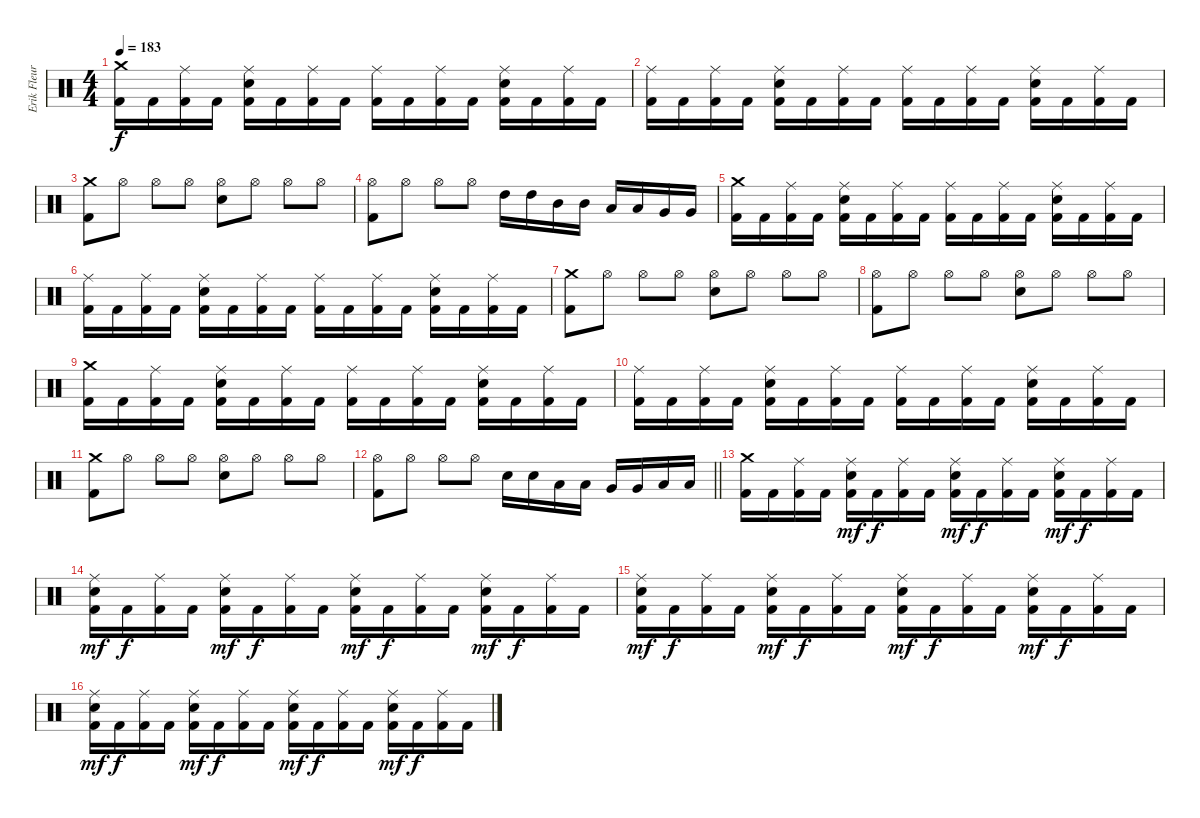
\track ("Erik Fleuren" "Erik Fleur") {instrument percussion}
\staff {score}
\articulation defaults
\ts (4 4)
\tempo 183
\clef neutral
\ks c
("Crash medium (hit)" "Kick (hit) 2").16{dy f} "Kick (hit) 2".16 ("Ride (middle)" "Kick (hit) 2").16 "Kick (hit) 2".16 ("Ride (middle)" "Electric Snare (hit)" "Kick (hit) 2").16 "Kick (hit) 2".16 ("Ride (middle)" "Kick (hit) 2").16 "Kick (hit) 2".16 ("Ride (middle)" "Kick (hit) 2").16 "Kick (hit) 2".16 ("Ride (middle)" "Kick (hit) 2").16 "Kick (hit) 2".16 ("Ride (middle)" "Electric Snare (hit)" "Kick (hit) 2").16 "Kick (hit) 2".16 ("Ride (middle)" "Kick (hit) 2").16 "Kick (hit) 2".16 |
("Ride (middle)" "Kick (hit) 2").16 "Kick (hit) 2".16 ("Ride (middle)" "Kick (hit) 2").16 "Kick (hit) 2".16 ("Ride (middle)" "Electric Snare (hit)" "Kick (hit) 2").16 "Kick (hit) 2".16 ("Ride (middle)" "Kick (hit) 2").16 "Kick (hit) 2".16 ("Ride (middle)" "Kick (hit) 2").16 "Kick (hit) 2".16 ("Ride (middle)" "Kick (hit) 2").16 "Kick (hit) 2".16 ("Ride (middle)" "Electric Snare (hit)" "Kick (hit) 2").16 "Kick (hit) 2".16 ("Ride (middle)" "Kick (hit) 2").16 "Kick (hit) 2".16 |
("Crash medium (hit)" "Kick (hit) 2").8 "Hi-Hat (open)".8 "Hi-Hat (open)".8 "Hi-Hat (open)".8 ("Hi-Hat (open)" "Electric Snare (hit)").8 "Hi-Hat (open)".8 "Hi-Hat (open)".8 "Hi-Hat (open)".8 |
("Hi-Hat (open)" "Kick (hit) 2").8 "Hi-Hat (open)".8 "Hi-Hat (open)".8 "Hi-Hat (open)".8 "High Tom (hit)".16 "High Tom (hit)".16 "Mid Tom (hit)".16 "Mid Tom (hit)".16 "Low Tom (hit)".16 "Low Tom (hit)".16 "Very Low Tom (hit)".16 "Very Low Tom (hit)".16 |
("Crash medium (hit)" "Kick (hit) 2").16 "Kick (hit) 2".16 ("Ride (middle)" "Kick (hit) 2").16 "Kick (hit) 2".16 ("Ride (middle)" "Electric Snare (hit)" "Kick (hit) 2").16 "Kick (hit) 2".16 ("Ride (middle)" "Kick (hit) 2").16 "Kick (hit) 2".16 ("Ride (middle)" "Kick (hit) 2").16 "Kick (hit) 2".16 ("Ride (middle)" "Kick (hit) 2").16 "Kick (hit) 2".16 ("Ride (middle)" "Electric Snare (hit)" "Kick (hit) 2").16 "Kick (hit) 2".16 ("Ride (middle)" "Kick (hit) 2").16 "Kick (hit) 2".16 |
("Ride (middle)" "Kick (hit) 2").16 "Kick (hit) 2".16 ("Ride (middle)" "Kick (hit) 2").16 "Kick (hit) 2".16 ("Ride (middle)" "Electric Snare (hit)" "Kick (hit) 2").16 "Kick (hit) 2".16 ("Ride (middle)" "Kick (hit) 2").16 "Kick (hit) 2".16 ("Ride (middle)" "Kick (hit) 2").16 "Kick (hit) 2".16 ("Ride (middle)" "Kick (hit) 2").16 "Kick (hit) 2".16 ("Ride (middle)" "Electric Snare (hit)" "Kick (hit) 2").16 "Kick (hit) 2".16 ("Ride (middle)" "Kick (hit) 2").16 "Kick (hit) 2".16 |
("Crash medium (hit)" "Kick (hit) 2").8 "Hi-Hat (open)".8 "Hi-Hat (open)".8 "Hi-Hat (open)".8 ("Hi-Hat (open)" "Electric Snare (hit)").8 "Hi-Hat (open)".8 "Hi-Hat (open)".8 "Hi-Hat (open)".8 |
("Hi-Hat (open)" "Kick (hit) 2").8 "Hi-Hat (open)".8 "Hi-Hat (open)".8 "Hi-Hat (open)".8 ("Hi-Hat (open)" "Electric Snare (hit)").8 "Hi-Hat (open)".8 "Hi-Hat (open)".8 "Hi-Hat (open)".8 |
("Crash medium (hit)" "Kick (hit) 2").16 "Kick (hit) 2".16 ("Ride (middle)" "Kick (hit) 2").16 "Kick (hit) 2".16 ("Ride (middle)" "Electric Snare (hit)" "Kick (hit) 2").16 "Kick (hit) 2".16 ("Ride (middle)" "Kick (hit) 2").16 "Kick (hit) 2".16 ("Ride (middle)" "Kick (hit) 2").16 "Kick (hit) 2".16 ("Ride (middle)" "Kick (hit) 2").16 "Kick (hit) 2".16 ("Ride (middle)" "Electric Snare (hit)" "Kick (hit) 2").16 "Kick (hit) 2".16 ("Ride (middle)" "Kick (hit) 2").16 "Kick (hit) 2".16 |
("Ride (middle)" "Kick (hit) 2").16 "Kick (hit) 2".16 ("Ride (middle)" "Kick (hit) 2").16 "Kick (hit) 2".16 ("Ride (middle)" "Electric Snare (hit)" "Kick (hit) 2").16 "Kick (hit) 2".16 ("Ride (middle)" "Kick (hit) 2").16 "Kick (hit) 2".16 ("Ride (middle)" "Kick (hit) 2").16 "Kick (hit) 2".16 ("Ride (middle)" "Kick (hit) 2").16 "Kick (hit) 2".16 ("Ride (middle)" "Electric Snare (hit)" "Kick (hit) 2").16 "Kick (hit) 2".16 ("Ride (middle)" "Kick (hit) 2").16 "Kick (hit) 2".16 |
("Crash medium (hit)" "Kick (hit) 2").8 "Hi-Hat (open)".8 "Hi-Hat (open)".8 "Hi-Hat (open)".8 ("Hi-Hat (open)" "Electric Snare (hit)").8 "Hi-Hat (open)".8 "Hi-Hat (open)".8 "Hi-Hat (open)".8 |
\barLineRight lightlight
("Hi-Hat (open)" "Kick (hit) 2").8 "Hi-Hat (open)".8 "Hi-Hat (open)".8 "Hi-Hat (open)".8 "Electric Snare (hit)".16 "Electric Snare (hit)".16 "Low Tom (hit)".16 "Low Tom (hit)".16 "Very Low Tom (hit)".16 "Very Low Tom (hit)".16 "Low Floor Tom (hit)".16 "Low Floor Tom (hit)".16 |
("Crash medium (hit)" "Kick (hit) 2").16 "Kick (hit) 2".16 ("Ride (middle)" "Kick (hit) 2").16 "Kick (hit) 2".16 ("Ride (middle)" "Electric Snare (hit)" "Kick (hit) 2").16{dy mf} "Kick (hit) 2".16{dy f} ("Ride (middle)" "Kick (hit) 2").16 "Kick (hit) 2".16 ("Ride (middle)" "Electric Snare (hit)" "Kick (hit) 2").16{dy mf} "Kick (hit) 2".16{dy f} ("Ride (middle)" "Kick (hit) 2").16 "Kick (hit) 2".16 ("Ride (middle)" "Electric Snare (hit)" "Kick (hit) 2").16{dy mf} "Kick (hit) 2".16{dy f} ("Ride (middle)" "Kick (hit) 2").16 "Kick (hit) 2".16 |
("Ride (middle)" "Electric Snare (hit)" "Kick (hit) 2").16{dy mf} "Kick (hit) 2".16{dy f} ("Ride (middle)" "Kick (hit) 2").16 "Kick (hit) 2".16 ("Ride (middle)" "Electric Snare (hit)" "Kick (hit) 2").16{dy mf} "Kick (hit) 2".16{dy f} ("Ride (middle)" "Kick (hit) 2").16 "Kick (hit) 2".16 ("Ride (middle)" "Electric Snare (hit)" "Kick (hit) 2").16{dy mf} "Kick (hit) 2".16{dy f} ("Ride (middle)" "Kick (hit) 2").16 "Kick (hit) 2".16 ("Ride (middle)" "Electric Snare (hit)" "Kick (hit) 2").16{dy mf} "Kick (hit) 2".16{dy f} ("Ride (middle)" "Kick (hit) 2").16 "Kick (hit) 2".16 |
("Ride (middle)" "Electric Snare (hit)" "Kick (hit) 2").16{dy mf} "Kick (hit) 2".16{dy f} ("Ride (middle)" "Kick (hit) 2").16 "Kick (hit) 2".16 ("Ride (middle)" "Electric Snare (hit)" "Kick (hit) 2").16{dy mf} "Kick (hit) 2".16{dy f} ("Ride (middle)" "Kick (hit) 2").16 "Kick (hit) 2".16 ("Ride (middle)" "Electric Snare (hit)" "Kick (hit) 2").16{dy mf} "Kick (hit) 2".16{dy f} ("Ride (middle)" "Kick (hit) 2").16 "Kick (hit) 2".16 ("Ride (middle)" "Electric Snare (hit)" "Kick (hit) 2").16{dy mf} "Kick (hit) 2".16{dy f} ("Ride (middle)" "Kick (hit) 2").16 "Kick (hit) 2".16 |
("Ride (middle)" "Electric Snare (hit)" "Kick (hit) 2").16{dy mf} "Kick (hit) 2".16{dy f} ("Ride (middle)" "Kick (hit) 2").16 "Kick (hit) 2".16 ("Ride (middle)" "Electric Snare (hit)" "Kick (hit) 2").16{dy mf} "Kick (hit) 2".16{dy f} ("Ride (middle)" "Kick (hit) 2").16 "Kick (hit) 2".16 ("Ride (middle)" "Electric Snare (hit)" "Kick (hit) 2").16{dy mf} "Kick (hit) 2".16{dy f} ("Ride (middle)" "Kick (hit) 2").16 "Kick (hit) 2".16 ("Ride (middle)" "Electric Snare (hit)" "Kick (hit) 2").16{dy mf} "Kick (hit) 2".16{dy f} ("Ride (middle)" "Kick (hit) 2").16 "Kick (hit) 2".16
